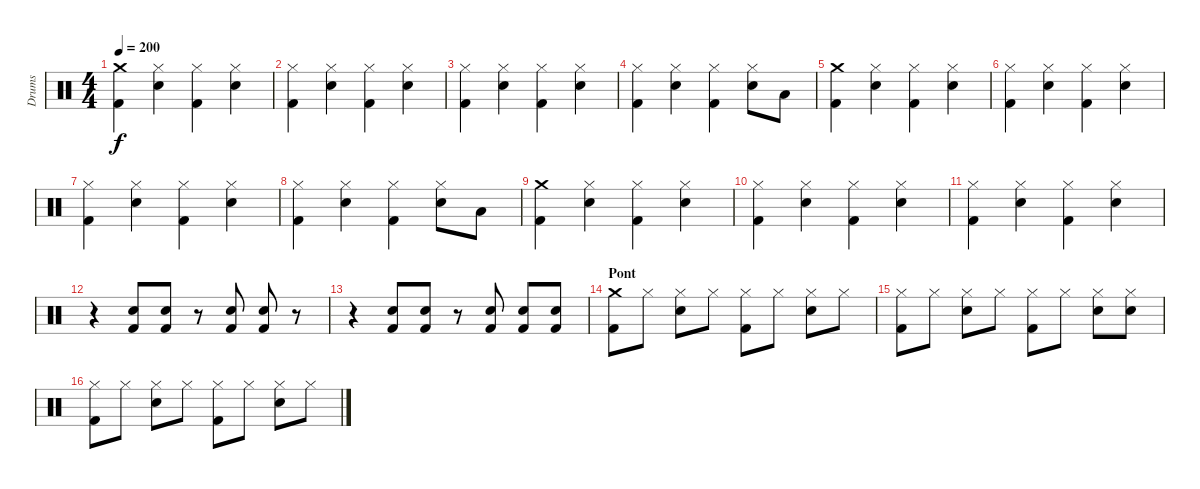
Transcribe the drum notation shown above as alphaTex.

\track ("Drums" "Drums") {instrument percussion}
\staff {score}
\articulation defaults
\ts (4 4)
\tempo 200
\clef neutral
\ks c
("Crash medium (hit)" "Kick (hit) 2").4{dy f} ("Hi-Hat (closed)" "Snare (hit) 2").4 ("Hi-Hat (closed)" "Kick (hit) 2").4 ("Hi-Hat (closed)" "Snare (hit) 2").4 |
("Hi-Hat (closed)" "Kick (hit) 2").4 ("Hi-Hat (closed)" "Snare (hit) 2").4 ("Hi-Hat (closed)" "Kick (hit) 2").4 ("Hi-Hat (closed)" "Snare (hit) 2").4 |
("Hi-Hat (closed)" "Kick (hit) 2").4 ("Hi-Hat (closed)" "Snare (hit) 2").4 ("Hi-Hat (closed)" "Kick (hit) 2").4 ("Hi-Hat (closed)" "Snare (hit) 2").4 |
("Hi-Hat (closed)" "Kick (hit) 2").4 ("Hi-Hat (closed)" "Snare (hit) 2").4 ("Hi-Hat (closed)" "Kick (hit) 2").4 ("Hi-Hat (closed)" "Snare (hit) 2").8 "Low Floor Tom (hit)".8 |
\section ("" "")
("Crash medium (hit)" "Kick (hit) 2").4 ("Hi-Hat (closed)" "Snare (hit) 2").4 ("Hi-Hat (closed)" "Kick (hit) 2").4 ("Hi-Hat (closed)" "Snare (hit) 2").4 |
("Hi-Hat (closed)" "Kick (hit) 2").4 ("Hi-Hat (closed)" "Snare (hit) 2").4 ("Hi-Hat (closed)" "Kick (hit) 2").4 ("Hi-Hat (closed)" "Snare (hit) 2").4 |
("Hi-Hat (closed)" "Kick (hit) 2").4 ("Hi-Hat (closed)" "Snare (hit) 2").4 ("Hi-Hat (closed)" "Kick (hit) 2").4 ("Hi-Hat (closed)" "Snare (hit) 2").4 |
("Hi-Hat (closed)" "Kick (hit) 2").4 ("Hi-Hat (closed)" "Snare (hit) 2").4 ("Hi-Hat (closed)" "Kick (hit) 2").4 ("Hi-Hat (closed)" "Snare (hit) 2").8 "Low Floor Tom (hit)".8 |
("Crash medium (hit)" "Kick (hit) 2").4 ("Hi-Hat (closed)" "Snare (hit) 2").4 ("Hi-Hat (closed)" "Kick (hit) 2").4 ("Hi-Hat (closed)" "Snare (hit) 2").4 |
("Hi-Hat (closed)" "Kick (hit) 2").4 ("Hi-Hat (closed)" "Snare (hit) 2").4 ("Hi-Hat (closed)" "Kick (hit) 2").4 ("Hi-Hat (closed)" "Snare (hit) 2").4 |
("Hi-Hat (closed)" "Kick (hit) 2").4 ("Hi-Hat (closed)" "Snare (hit) 2").4 ("Hi-Hat (closed)" "Kick (hit) 2").4 ("Hi-Hat (closed)" "Snare (hit) 2").4 |
r.4 ("Snare (hit) 2" "Kick (hit) 2").8 ("Snare (hit) 2" "Kick (hit) 2").8 r.8 ("Snare (hit) 2" "Kick (hit) 2").8 ("Snare (hit) 2" "Kick (hit) 2").8 r.8 |
r.4 ("Snare (hit) 2" "Kick (hit) 2").8 ("Snare (hit) 2" "Kick (hit) 2").8 r.8 ("Snare (hit) 2" "Kick (hit) 2").8 ("Snare (hit) 2" "Kick (hit) 2").8 ("Snare (hit) 2" "Kick (hit) 2").8 |
\section ("" "Pont")
("Crash medium (hit)" "Kick (hit) 2").8 "Hi-Hat (closed)".8 ("Hi-Hat (closed)" "Snare (hit) 2").8 "Hi-Hat (closed)".8 ("Hi-Hat (closed)" "Kick (hit) 2").8 "Hi-Hat (closed)".8 ("Hi-Hat (closed)" "Snare (hit) 2").8 "Hi-Hat (closed)".8 |
("Hi-Hat (closed)" "Kick (hit) 2").8 "Hi-Hat (closed)".8 ("Hi-Hat (closed)" "Snare (hit) 2").8 "Hi-Hat (closed)".8 ("Hi-Hat (closed)" "Kick (hit) 2").8 "Hi-Hat (closed)".8 ("Hi-Hat (closed)" "Snare (hit) 2").8 ("Hi-Hat (closed)" "Snare (hit) 2").8 |
("Hi-Hat (closed)" "Kick (hit) 2").8 "Hi-Hat (closed)".8 ("Hi-Hat (closed)" "Snare (hit) 2").8 "Hi-Hat (closed)".8 ("Hi-Hat (closed)" "Kick (hit) 2").8 "Hi-Hat (closed)".8 ("Hi-Hat (closed)" "Snare (hit) 2").8 "Hi-Hat (closed)".8
